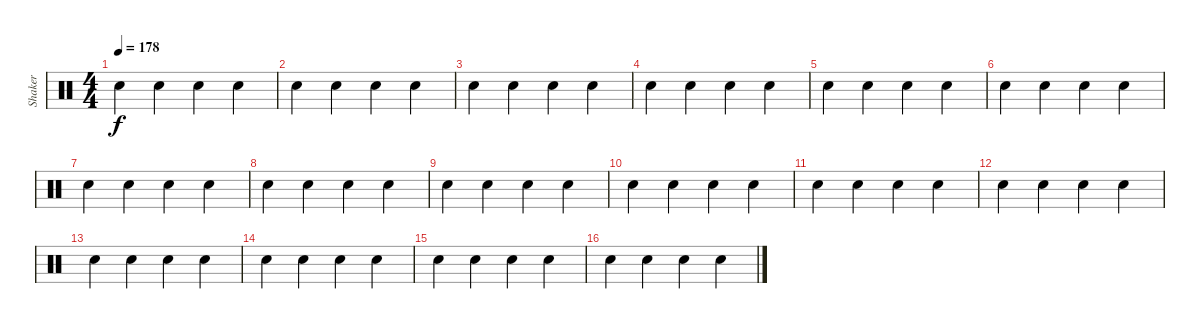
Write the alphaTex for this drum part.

\track ("Shaker" "Shaker") {instrument percussion}
\staff {score}
\articulation defaults
\ts (4 4)
\section ("" "")
\tempo 178
\clef neutral
\ks c "Snare (hit)".4{dy f} "Snare (hit)".4 "Snare (hit)".4 "Snare (hit)".4
|
"Snare (hit)".4 "Snare (hit)".4 "Snare (hit)".4 "Snare (hit)".4 |
"Snare (hit)".4 "Snare (hit)".4 "Snare (hit)".4 "Snare (hit)".4 |
"Snare (hit)".4 "Snare (hit)".4 "Snare (hit)".4 "Snare (hit)".4 |
"Snare (hit)".4 "Snare (hit)".4 "Snare (hit)".4 "Snare (hit)".4 |
"Snare (hit)".4 "Snare (hit)".4 "Snare (hit)".4 "Snare (hit)".4 |
"Snare (hit)".4 "Snare (hit)".4 "Snare (hit)".4 "Snare (hit)".4 |
"Snare (hit)".4 "Snare (hit)".4 "Snare (hit)".4 "Snare (hit)".4 |
"Snare (hit)".4 "Snare (hit)".4 "Snare (hit)".4 "Snare (hit)".4 |
"Snare (hit)".4 "Snare (hit)".4 "Snare (hit)".4 "Snare (hit)".4 |
"Snare (hit)".4 "Snare (hit)".4 "Snare (hit)".4 "Snare (hit)".4 |
"Snare (hit)".4 "Snare (hit)".4 "Snare (hit)".4 "Snare (hit)".4 |
"Snare (hit)".4 "Snare (hit)".4 "Snare (hit)".4 "Snare (hit)".4 |
"Snare (hit)".4 "Snare (hit)".4 "Snare (hit)".4 "Snare (hit)".4 |
"Snare (hit)".4 "Snare (hit)".4 "Snare (hit)".4 "Snare (hit)".4 |
"Snare (hit)".4 "Snare (hit)".4 "Snare (hit)".4 "Snare (hit)".4
